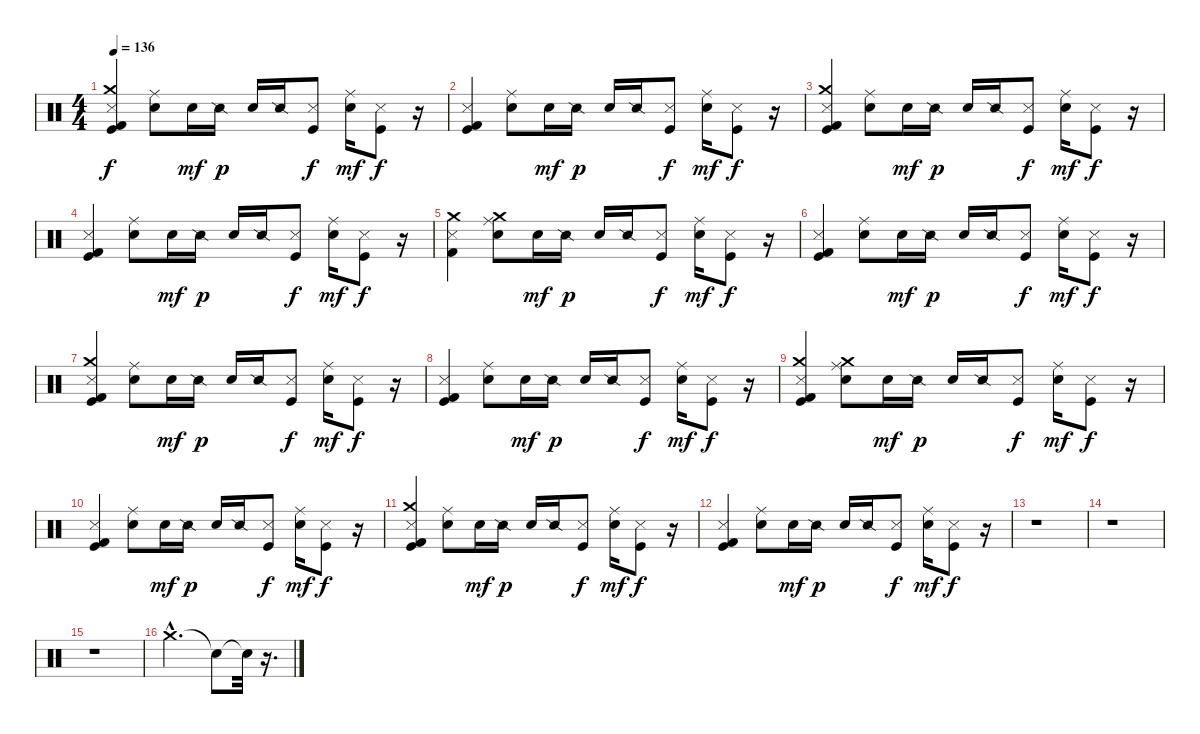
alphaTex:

\track "" {instrument percussion}
\staff {score}
\articulation defaults
\ts (4 4)
\tempo 136
\clef neutral
\ks c
("Metronome (hit)" "Kick (hit) 2" "Crash medium (hit)" "Kick (hit)").4{dy f} ("Ride (middle)" "Metronome (bell)").8 "Electric Snare (hit)".16{dy mf} "Snare (side stick) 2".16{dy p} "Electric Snare (hit)".16 "Snare (side stick) 2".16 ("Metronome (hit)" "Kick (hit)").8{dy f} ("Ride (middle)" "Electric Snare (hit)").16{dy mf} ("Metronome (hit)" "Kick (hit)").8{dy f} r.16 |
("Metronome (hit)" "Kick (hit) 2" "Kick (hit)").4 ("Ride (middle)" "Metronome (bell)").8 "Electric Snare (hit)".16{dy mf} "Snare (side stick) 2".16{dy p} "Electric Snare (hit)".16 "Snare (side stick) 2".16 ("Metronome (hit)" "Kick (hit)").8{dy f} ("Ride (middle)" "Electric Snare (hit)").16{dy mf} ("Metronome (hit)" "Kick (hit)").8{dy f} r.16 |
("Metronome (hit)" "Kick (hit) 2" "Crash medium (hit)" "Kick (hit)").4 ("Ride (middle)" "Metronome (bell)").8 "Electric Snare (hit)".16{dy mf} "Snare (side stick) 2".16{dy p} "Electric Snare (hit)".16 "Snare (side stick) 2".16 ("Metronome (hit)" "Kick (hit)").8{dy f} ("Ride (middle)" "Electric Snare (hit)").16{dy mf} ("Metronome (hit)" "Kick (hit)").8{dy f} r.16 |
("Metronome (hit)" "Kick (hit) 2" "Kick (hit)").4 ("Ride (middle)" "Metronome (bell)").8 "Electric Snare (hit)".16{dy mf} "Snare (side stick) 2".16{dy p} "Electric Snare (hit)".16 "Snare (side stick) 2".16 ("Metronome (hit)" "Kick (hit)").8{dy f} ("Ride (middle)" "Electric Snare (hit)").16{dy mf} ("Metronome (hit)" "Kick (hit)").8{dy f} r.16 |
("Metronome (hit)" "Kick (hit) 2" "Crash medium (hit)").4 ("Ride (middle)" "Metronome (bell)" "Crash medium (hit)").8 "Electric Snare (hit)".16{dy mf} "Snare (side stick) 2".16{dy p} "Electric Snare (hit)".16 "Snare (side stick) 2".16 ("Metronome (hit)" "Kick (hit)").8{dy f} ("Ride (middle)" "Electric Snare (hit)").16{dy mf} ("Metronome (hit)" "Kick (hit)").8{dy f} r.16 |
("Metronome (hit)" "Kick (hit) 2" "Kick (hit)").4 ("Ride (middle)" "Metronome (bell)").8 "Electric Snare (hit)".16{dy mf} "Snare (side stick) 2".16{dy p} "Electric Snare (hit)".16 "Snare (side stick) 2".16 ("Metronome (hit)" "Kick (hit)").8{dy f} ("Ride (middle)" "Electric Snare (hit)").16{dy mf} ("Metronome (hit)" "Kick (hit)").8{dy f} r.16 |
("Metronome (hit)" "Kick (hit) 2" "Crash medium (hit)" "Kick (hit)").4 ("Ride (middle)" "Metronome (bell)").8 "Electric Snare (hit)".16{dy mf} "Snare (side stick) 2".16{dy p} "Electric Snare (hit)".16 "Snare (side stick) 2".16 ("Metronome (hit)" "Kick (hit)").8{dy f} ("Ride (middle)" "Electric Snare (hit)").16{dy mf} ("Metronome (hit)" "Kick (hit)").8{dy f} r.16 |
("Metronome (hit)" "Kick (hit) 2" "Kick (hit)").4 ("Ride (middle)" "Metronome (bell)").8 "Electric Snare (hit)".16{dy mf} "Snare (side stick) 2".16{dy p} "Electric Snare (hit)".16 "Snare (side stick) 2".16 ("Metronome (hit)" "Kick (hit)").8{dy f} ("Ride (middle)" "Electric Snare (hit)").16{dy mf} ("Metronome (hit)" "Kick (hit)").8{dy f} r.16 |
("Metronome (hit)" "Kick (hit) 2" "Crash medium (hit)" "Kick (hit)").4 ("Ride (middle)" "Metronome (bell)" "Crash medium (hit)").8 "Electric Snare (hit)".16{dy mf} "Snare (side stick) 2".16{dy p} "Electric Snare (hit)".16 "Snare (side stick) 2".16 ("Metronome (hit)" "Kick (hit)").8{dy f} ("Ride (middle)" "Electric Snare (hit)").16{dy mf} ("Metronome (hit)" "Kick (hit)").8{dy f} r.16 |
("Metronome (hit)" "Kick (hit) 2" "Kick (hit)").4 ("Ride (middle)" "Metronome (bell)").8 "Electric Snare (hit)".16{dy mf} "Snare (side stick) 2".16{dy p} "Electric Snare (hit)".16 "Snare (side stick) 2".16 ("Metronome (hit)" "Kick (hit)").8{dy f} ("Ride (middle)" "Electric Snare (hit)").16{dy mf} ("Metronome (hit)" "Kick (hit)").8{dy f} r.16 |
("Metronome (hit)" "Kick (hit) 2" "Crash medium (hit)" "Kick (hit)").4 ("Ride (middle)" "Metronome (bell)").8 "Electric Snare (hit)".16{dy mf} "Snare (side stick) 2".16{dy p} "Electric Snare (hit)".16 "Snare (side stick) 2".16 ("Metronome (hit)" "Kick (hit)").8{dy f} ("Ride (middle)" "Electric Snare (hit)").16{dy mf} ("Metronome (hit)" "Kick (hit)").8{dy f} r.16 |
("Metronome (hit)" "Kick (hit) 2" "Kick (hit)").4 ("Ride (middle)" "Metronome (bell)").8 "Electric Snare (hit)".16{dy mf} "Snare (side stick) 2".16{dy p} "Electric Snare (hit)".16 "Snare (side stick) 2".16 ("Metronome (hit)" "Kick (hit)").8{dy f} ("Ride (middle)" "Electric Snare (hit)").16{dy mf} ("Metronome (hit)" "Kick (hit)").8{dy f} r.16 |
r.1 |
r.1 |
r.1 |
"Crash medium (hit)"{hac}.2{d} "Snare (hit)"{t}.8 "Snare (hit)"{t}.32 r.16{d}
